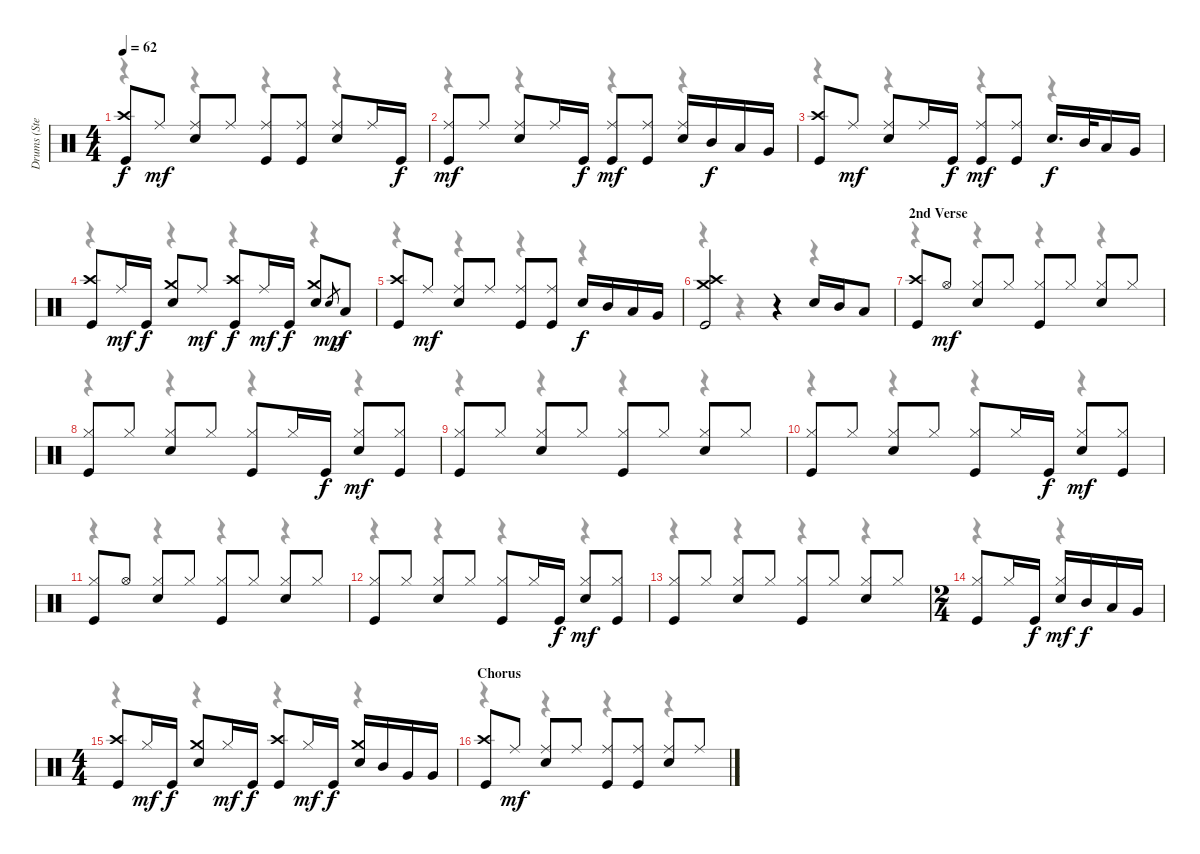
\track ("Drums (Steven)" "Drums (Ste") {instrument percussion}
\staff {score}
\articulation defaults
\voice
\ts (4 4)
\tempo 62
\clef neutral
\ks c
("Crash high (hit)" "Kick (hit)").8{dy f} "Ride (middle)".8{dy mf} ("Ride (middle)" "Snare (hit) 2").8 "Ride (middle)".8 ("Ride (middle)" "Kick (hit)").8 ("Ride (middle)" "Kick (hit)").8 ("Ride (middle)" "Snare (hit) 2").8 "Ride (middle)".16 "Kick (hit)".16{dy f} |
("Ride (middle)" "Kick (hit)").8{dy mf} "Ride (middle)".8 ("Ride (middle)" "Snare (hit) 2").8 "Ride (middle)".16 "Kick (hit)".16{dy f} ("Ride (middle)" "Kick (hit)").8{dy mf} ("Ride (middle)" "Kick (hit)").8 ("Ride (middle)" "Snare (hit) 2").16 "Mid Tom (hit)".16{dy f} "Low Tom (hit)".16 "Very Low Tom (hit)".16 |
("Crash high (hit)" "Kick (hit)").8 "Ride (middle)".8{dy mf} ("Ride (middle)" "Snare (hit) 2").8 "Ride (middle)".16 "Kick (hit)".16{dy f} ("Ride (middle)" "Kick (hit)").8{dy mf} ("Ride (middle)" "Kick (hit)").8 "Snare (hit) 2".16{d dy f} "Mid Tom (hit)".32 "Low Tom (hit)".16 "Very Low Tom (hit)".16 |
("Crash high (hit)" "Kick (hit)").8 "Ride (middle)".16{dy mf} "Kick (hit)".16{dy f} ("Crash medium (hit)" "Snare (hit) 2").8 "Ride (middle)".8{dy mf} ("Crash high (hit)" "Kick (hit)").8{dy f} "Ride (middle)".16{dy mf} "Kick (hit)".16{dy f} ("Crash medium (hit)" "Snare (hit) 2").8 "Snare (hit)".8{gr dy mp} "Low Tom (hit)".8{dy f} |
("Crash high (hit)" "Kick (hit)").8 "Ride (middle)".8{dy mf} ("Ride (middle)" "Snare (hit) 2").8 "Ride (middle)".8 ("Ride (middle)" "Kick (hit)").8 ("Ride (middle)" "Kick (hit)").8 "Snare (hit) 2".16{dy f} "Mid Tom (hit)".16 "Low Tom (hit)".16 "Very Low Tom (hit)".16 |
("Crash medium (hit)" "Crash high (hit)" "Kick (hit)").2 r.4 "Snare (hit) 2".16 "Mid Tom (hit)".16 "Low Tom (hit)".8 |
\section ("" "2nd Verse")
("Crash high (hit)" "Kick (hit)").8 "Hi-Hat (open)".8{dy mf} ("Hi-Hat (closed)" "Snare (hit) 2").8 "Hi-Hat (closed)".8 ("Hi-Hat (closed)" "Kick (hit)").8 "Hi-Hat (closed)".8 ("Hi-Hat (closed)" "Snare (hit) 2").8 "Hi-Hat (closed)".8 |
("Hi-Hat (closed)" "Kick (hit)").8 "Hi-Hat (closed)".8 ("Hi-Hat (closed)" "Snare (hit) 2").8 "Hi-Hat (closed)".8 ("Hi-Hat (closed)" "Kick (hit)").8 "Hi-Hat (closed)".16 "Kick (hit)".16{dy f} ("Hi-Hat (closed)" "Snare (hit) 2").8{dy mf} ("Hi-Hat (closed)" "Kick (hit)").8 |
("Hi-Hat (closed)" "Kick (hit)").8 "Hi-Hat (closed)".8 ("Hi-Hat (closed)" "Snare (hit) 2").8 "Hi-Hat (closed)".8 ("Hi-Hat (closed)" "Kick (hit)").8 "Hi-Hat (closed)".8 ("Hi-Hat (closed)" "Snare (hit) 2").8 "Hi-Hat (closed)".8 |
("Hi-Hat (closed)" "Kick (hit)").8 "Hi-Hat (closed)".8 ("Hi-Hat (closed)" "Snare (hit) 2").8 "Hi-Hat (closed)".8 ("Hi-Hat (closed)" "Kick (hit)").8 "Hi-Hat (closed)".16 "Kick (hit)".16{dy f} ("Hi-Hat (closed)" "Snare (hit) 2").8{dy mf} ("Hi-Hat (closed)" "Kick (hit)").8 |
("Hi-Hat (closed)" "Kick (hit)").8 "Hi-Hat (open)".8 ("Hi-Hat (closed)" "Snare (hit) 2").8 "Hi-Hat (closed)".8 ("Hi-Hat (closed)" "Kick (hit)").8 "Hi-Hat (closed)".8 ("Hi-Hat (closed)" "Snare (hit) 2").8 "Hi-Hat (closed)".8 |
("Hi-Hat (closed)" "Kick (hit)").8 "Hi-Hat (closed)".8 ("Hi-Hat (closed)" "Snare (hit) 2").8 "Hi-Hat (closed)".8 ("Hi-Hat (closed)" "Kick (hit)").8 "Hi-Hat (closed)".16 "Kick (hit)".16{dy f} ("Hi-Hat (closed)" "Snare (hit) 2").8{dy mf} ("Hi-Hat (closed)" "Kick (hit)").8 |
("Hi-Hat (closed)" "Kick (hit)").8 "Hi-Hat (closed)".8 ("Hi-Hat (closed)" "Snare (hit) 2").8 "Hi-Hat (closed)".8 ("Hi-Hat (closed)" "Kick (hit)").8 "Hi-Hat (closed)".8 ("Hi-Hat (closed)" "Snare (hit) 2").8 "Hi-Hat (closed)".8 |
\ts (2 4)
("Hi-Hat (closed)" "Kick (hit)").8 "Hi-Hat (closed)".16 "Kick (hit)".16{dy f} ("Hi-Hat (closed)" "Snare (hit) 2").16{dy mf} "Mid Tom (hit)".16{dy f} "Low Tom (hit)".16 "Very Low Tom (hit)".16 |
\ts (4 4)
("Crash high (hit)" "Kick (hit)").8 "Hi-Hat (closed)".16{dy mf} "Kick (hit)".16{dy f} ("Crash medium (hit)" "Snare (hit) 2").8 "Hi-Hat (closed)".16{dy mf} "Kick (hit)".16{dy f} ("Crash high (hit)" "Kick (hit)").8 "Hi-Hat (closed)".16{dy mf} "Kick (hit)".16{dy f} ("Crash medium (hit)" "Snare (hit) 2").16 "Mid Tom (hit)".16 "Very Low Tom (hit)".16 "Very Low Tom (hit)".16 |
\section ("" "Chorus")
("Crash high (hit)" "Kick (hit)").8 "Ride (middle)".8{dy mf} ("Ride (middle)" "Snare (hit) 2").8 "Ride (middle)".8 ("Ride (middle)" "Kick (hit)").8 ("Ride (middle)" "Kick (hit)").8 ("Ride (middle)" "Snare (hit) 2").8 "Ride (middle)".8
\voice
\clef neutral
\ottava regular
\simile none
\ks c
r.4{dy f} r.4 r.4 r.4 |
r.4 r.4 r.4 r.4 |
r.4 r.4 r.4 r.4 |
r.4 r.4 r.4 r.4 |
r.4 r.4 r.4 r.4 |
r.4 r.4 r.4 r.4 |
r.4 r.4 r.4 r.4 |
r.4 r.4 r.4 r.4 |
r.4 r.4 r.4 r.4 |
r.4 r.4 r.4 r.4 |
r.4 r.4 r.4 r.4 |
r.4 r.4 r.4 r.4 |
r.4 r.4 r.4 r.4 |
r.4 r.4 |
r.4 r.4 r.4 r.4 |
r.4 r.4 r.4 r.4
